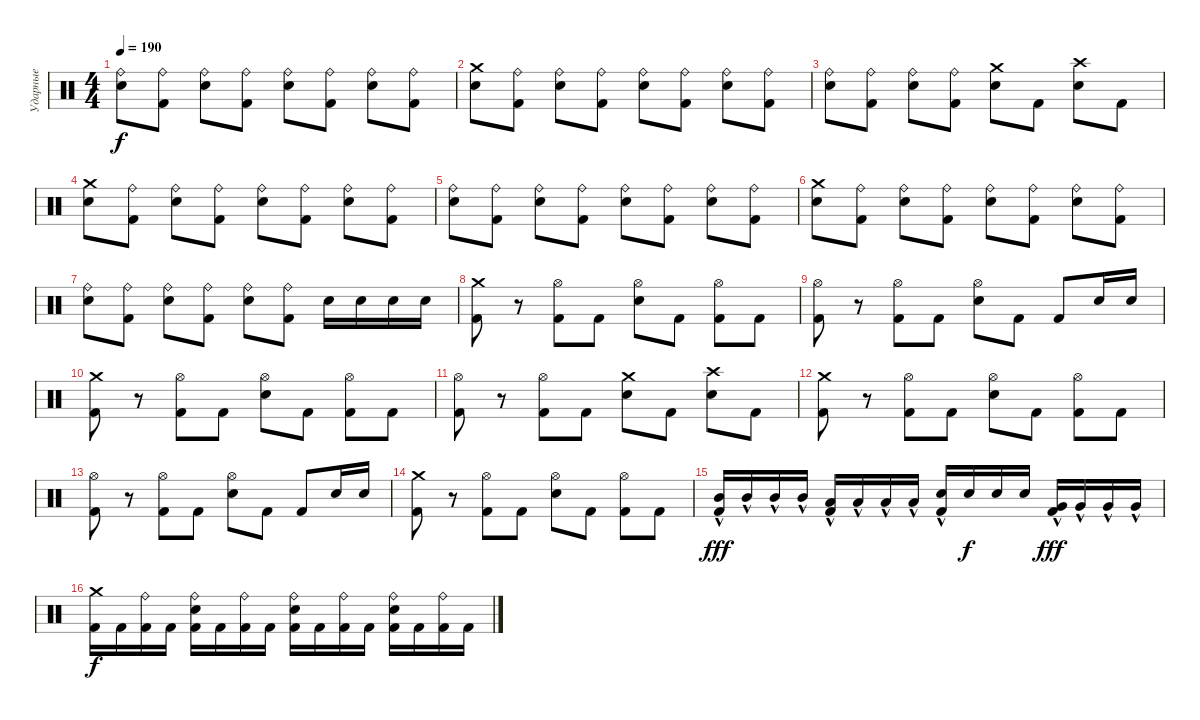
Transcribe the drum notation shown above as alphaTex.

\track ("Ударные" "Ударные") {instrument percussion}
\staff {score}
\articulation defaults
\ts (4 4)
\tempo 190
\clef neutral
\ks c
("Ride (bell)" "Electric Snare (hit)").8{dy f} ("Ride (bell)" "Kick (hit) 2").8 ("Ride (bell)" "Electric Snare (hit)").8 ("Ride (bell)" "Kick (hit) 2").8 ("Ride (bell)" "Electric Snare (hit)").8 ("Ride (bell)" "Kick (hit) 2").8 ("Ride (bell)" "Electric Snare (hit)").8 ("Ride (bell)" "Kick (hit) 2").8 |
("Crash medium (hit)" "Electric Snare (hit)").8 ("Ride (bell)" "Kick (hit) 2").8 ("Ride (bell)" "Electric Snare (hit)").8 ("Ride (bell)" "Kick (hit) 2").8 ("Ride (bell)" "Electric Snare (hit)").8 ("Ride (bell)" "Kick (hit) 2").8 ("Ride (bell)" "Electric Snare (hit)").8 ("Ride (bell)" "Kick (hit) 2").8 |
("Ride (bell)" "Electric Snare (hit)").8 ("Ride (bell)" "Kick (hit) 2").8 ("Ride (bell)" "Electric Snare (hit)").8 ("Ride (bell)" "Kick (hit) 2").8 ("Crash medium (hit)" "Electric Snare (hit)").8 "Kick (hit) 2".8 ("Crash high (hit)" "Electric Snare (hit)").8 "Kick (hit) 2".8 |
("Crash medium (hit)" "Electric Snare (hit)").8 ("Ride (bell)" "Kick (hit) 2").8 ("Ride (bell)" "Electric Snare (hit)").8 ("Ride (bell)" "Kick (hit) 2").8 ("Ride (bell)" "Electric Snare (hit)").8 ("Ride (bell)" "Kick (hit) 2").8 ("Ride (bell)" "Electric Snare (hit)").8 ("Ride (bell)" "Kick (hit) 2").8 |
("Ride (bell)" "Electric Snare (hit)").8 ("Ride (bell)" "Kick (hit) 2").8 ("Ride (bell)" "Electric Snare (hit)").8 ("Ride (bell)" "Kick (hit) 2").8 ("Ride (bell)" "Electric Snare (hit)").8 ("Ride (bell)" "Kick (hit) 2").8 ("Ride (bell)" "Electric Snare (hit)").8 ("Ride (bell)" "Kick (hit) 2").8 |
("Crash medium (hit)" "Electric Snare (hit)").8 ("Ride (bell)" "Kick (hit) 2").8 ("Ride (bell)" "Electric Snare (hit)").8 ("Ride (bell)" "Kick (hit) 2").8 ("Ride (bell)" "Electric Snare (hit)").8 ("Ride (bell)" "Kick (hit) 2").8 ("Ride (bell)" "Electric Snare (hit)").8 ("Ride (bell)" "Kick (hit) 2").8 |
("Ride (bell)" "Electric Snare (hit)").8 ("Ride (bell)" "Kick (hit) 2").8 ("Ride (bell)" "Electric Snare (hit)").8 ("Ride (bell)" "Kick (hit) 2").8 ("Ride (bell)" "Electric Snare (hit)").8 ("Ride (bell)" "Kick (hit) 2").8 "Electric Snare (hit)".16 "Electric Snare (hit)".16 "Electric Snare (hit)".16 "Electric Snare (hit)".16 |
("Crash medium (hit)" "Kick (hit) 2").8 r.8 ("Hi-Hat (open)" "Kick (hit) 2").8 "Kick (hit) 2".8 ("Hi-Hat (open)" "Electric Snare (hit)").8 "Kick (hit) 2".8 ("Hi-Hat (open)" "Kick (hit) 2").8 "Kick (hit) 2".8 |
("Hi-Hat (open)" "Kick (hit) 2").8 r.8 ("Hi-Hat (open)" "Kick (hit) 2").8 "Kick (hit) 2".8 ("Hi-Hat (open)" "Electric Snare (hit)").8 "Kick (hit) 2".8 "Kick (hit) 2".8 "Electric Snare (hit)".16 "Electric Snare (hit)".16 |
("Crash medium (hit)" "Kick (hit) 2").8 r.8 ("Hi-Hat (open)" "Kick (hit) 2").8 "Kick (hit) 2".8 ("Hi-Hat (open)" "Electric Snare (hit)").8 "Kick (hit) 2".8 ("Hi-Hat (open)" "Kick (hit) 2").8 "Kick (hit) 2".8 |
("Hi-Hat (open)" "Kick (hit) 2").8 r.8 ("Hi-Hat (open)" "Kick (hit) 2").8 "Kick (hit) 2".8 ("Crash medium (hit)" "Electric Snare (hit)").8 "Kick (hit) 2".8 ("Crash high (hit)" "Electric Snare (hit)").8 "Kick (hit) 2".8 |
("Crash medium (hit)" "Kick (hit) 2").8 r.8 ("Hi-Hat (open)" "Kick (hit) 2").8 "Kick (hit) 2".8 ("Hi-Hat (open)" "Electric Snare (hit)").8 "Kick (hit) 2".8 ("Hi-Hat (open)" "Kick (hit) 2").8 "Kick (hit) 2".8 |
("Hi-Hat (open)" "Kick (hit) 2").8 r.8 ("Hi-Hat (open)" "Kick (hit) 2").8 "Kick (hit) 2".8 ("Hi-Hat (open)" "Electric Snare (hit)").8 "Kick (hit) 2".8 "Kick (hit) 2".8 "Electric Snare (hit)".16 "Electric Snare (hit)".16 |
("Crash medium (hit)" "Kick (hit) 2").8 r.8 ("Hi-Hat (open)" "Kick (hit) 2").8 "Kick (hit) 2".8 ("Hi-Hat (open)" "Electric Snare (hit)").8 "Kick (hit) 2".8 ("Hi-Hat (open)" "Kick (hit) 2").8 "Kick (hit) 2".8 |
("Mid Tom (hit)" "Kick (hit) 2"{hac}).16{dy fff} "Mid Tom (hit)"{hac}.16 "Mid Tom (hit)"{hac}.16 "Mid Tom (hit)"{hac}.16 ("Low Tom (hit)"{hac} "Kick (hit) 2"{hac}).16 "Low Tom (hit)"{hac}.16 "Low Tom (hit)"{hac}.16 "Low Tom (hit)"{hac}.16 ("Electric Snare (hit)" "Kick (hit) 2"{hac}).16 "Electric Snare (hit)".16{dy f} "Electric Snare (hit)".16 "Electric Snare (hit)".16 ("Very Low Tom (hit)"{hac} "Kick (hit) 2"{hac}).16{dy fff} "Very Low Tom (hit)"{hac}.16 "Very Low Tom (hit)"{hac}.16 "Very Low Tom (hit)"{hac}.16 |
("Crash medium (hit)" "Kick (hit) 2").16{dy f} "Kick (hit) 2".16 ("Ride (bell)" "Kick (hit) 2").16 "Kick (hit) 2".16 ("Ride (bell)" "Electric Snare (hit)" "Kick (hit) 2").16 "Kick (hit) 2".16 ("Ride (bell)" "Kick (hit) 2").16 "Kick (hit) 2".16 ("Ride (bell)" "Electric Snare (hit)" "Kick (hit) 2").16 "Kick (hit) 2".16 ("Ride (bell)" "Kick (hit) 2").16 "Kick (hit) 2".16 ("Ride (bell)" "Electric Snare (hit)" "Kick (hit) 2").16 "Kick (hit) 2".16 ("Ride (bell)" "Kick (hit) 2").16 "Kick (hit) 2".16
